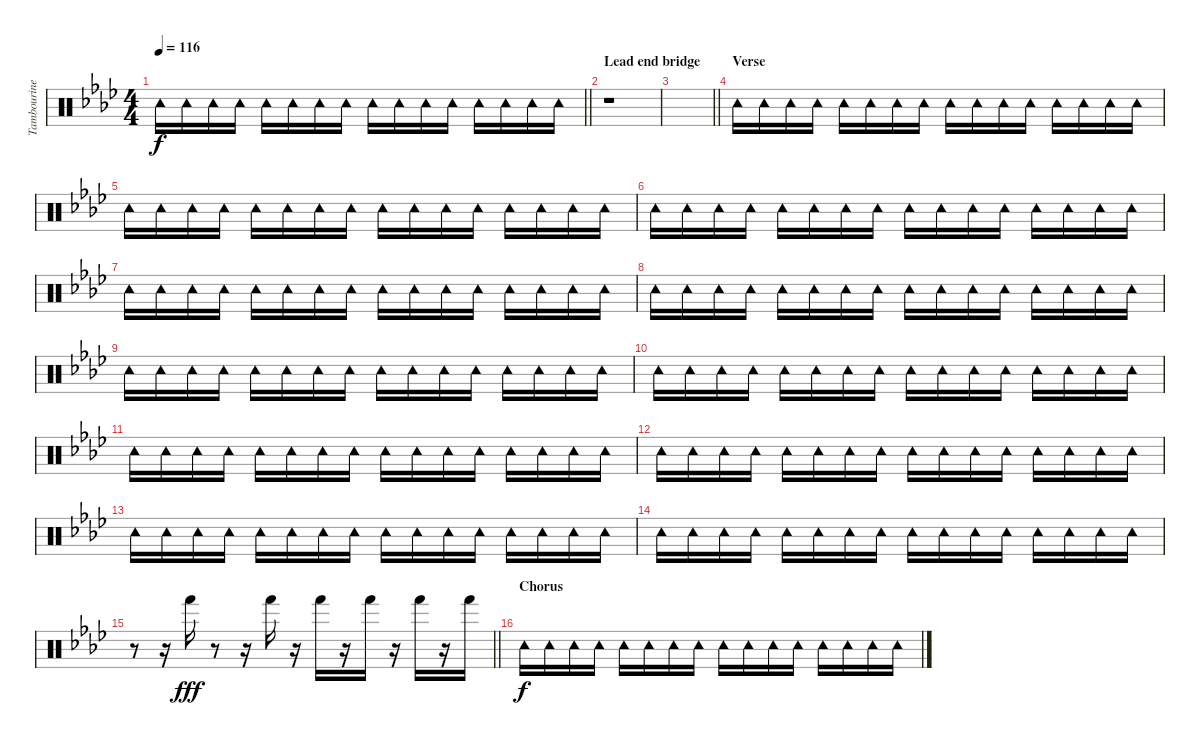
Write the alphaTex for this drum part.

\track ("Tambourine" "Tambourine") {instrument percussion}
\staff {score}
\articulation defaults
\ts (4 4)
\tempo 116
\clef neutral
\barLineRight lightlight
\ks fminor "Tambourine (hit)".16{dy f} "Tambourine (hit)".16 "Tambourine (hit)".16 "Tambourine (hit)".16 "Tambourine (hit)".16 "Tambourine (hit)".16 "Tambourine (hit)".16 "Tambourine (hit)".16 "Tambourine (hit)".16 "Tambourine (hit)".16 "Tambourine (hit)".16 "Tambourine (hit)".16 "Tambourine (hit)".16 "Tambourine (hit)".16 "Tambourine (hit)".16 "Tambourine (hit)".16
|
\section ("" "Lead end bridge")
r.1 |
\barLineRight lightlight
|
\section ("" "Verse")
"Tambourine (hit)".16 "Tambourine (hit)".16 "Tambourine (hit)".16 "Tambourine (hit)".16 "Tambourine (hit)".16 "Tambourine (hit)".16 "Tambourine (hit)".16 "Tambourine (hit)".16 "Tambourine (hit)".16 "Tambourine (hit)".16 "Tambourine (hit)".16 "Tambourine (hit)".16 "Tambourine (hit)".16 "Tambourine (hit)".16 "Tambourine (hit)".16 "Tambourine (hit)".16 |
"Tambourine (hit)".16 "Tambourine (hit)".16 "Tambourine (hit)".16 "Tambourine (hit)".16 "Tambourine (hit)".16 "Tambourine (hit)".16 "Tambourine (hit)".16 "Tambourine (hit)".16 "Tambourine (hit)".16 "Tambourine (hit)".16 "Tambourine (hit)".16 "Tambourine (hit)".16 "Tambourine (hit)".16 "Tambourine (hit)".16 "Tambourine (hit)".16 "Tambourine (hit)".16 |
"Tambourine (hit)".16 "Tambourine (hit)".16 "Tambourine (hit)".16 "Tambourine (hit)".16 "Tambourine (hit)".16 "Tambourine (hit)".16 "Tambourine (hit)".16 "Tambourine (hit)".16 "Tambourine (hit)".16 "Tambourine (hit)".16 "Tambourine (hit)".16 "Tambourine (hit)".16 "Tambourine (hit)".16 "Tambourine (hit)".16 "Tambourine (hit)".16 "Tambourine (hit)".16 |
"Tambourine (hit)".16 "Tambourine (hit)".16 "Tambourine (hit)".16 "Tambourine (hit)".16 "Tambourine (hit)".16 "Tambourine (hit)".16 "Tambourine (hit)".16 "Tambourine (hit)".16 "Tambourine (hit)".16 "Tambourine (hit)".16 "Tambourine (hit)".16 "Tambourine (hit)".16 "Tambourine (hit)".16 "Tambourine (hit)".16 "Tambourine (hit)".16 "Tambourine (hit)".16 |
"Tambourine (hit)".16 "Tambourine (hit)".16 "Tambourine (hit)".16 "Tambourine (hit)".16 "Tambourine (hit)".16 "Tambourine (hit)".16 "Tambourine (hit)".16 "Tambourine (hit)".16 "Tambourine (hit)".16 "Tambourine (hit)".16 "Tambourine (hit)".16 "Tambourine (hit)".16 "Tambourine (hit)".16 "Tambourine (hit)".16 "Tambourine (hit)".16 "Tambourine (hit)".16 |
"Tambourine (hit)".16 "Tambourine (hit)".16 "Tambourine (hit)".16 "Tambourine (hit)".16 "Tambourine (hit)".16 "Tambourine (hit)".16 "Tambourine (hit)".16 "Tambourine (hit)".16 "Tambourine (hit)".16 "Tambourine (hit)".16 "Tambourine (hit)".16 "Tambourine (hit)".16 "Tambourine (hit)".16 "Tambourine (hit)".16 "Tambourine (hit)".16 "Tambourine (hit)".16 |
"Tambourine (hit)".16 "Tambourine (hit)".16 "Tambourine (hit)".16 "Tambourine (hit)".16 "Tambourine (hit)".16 "Tambourine (hit)".16 "Tambourine (hit)".16 "Tambourine (hit)".16 "Tambourine (hit)".16 "Tambourine (hit)".16 "Tambourine (hit)".16 "Tambourine (hit)".16 "Tambourine (hit)".16 "Tambourine (hit)".16 "Tambourine (hit)".16 "Tambourine (hit)".16 |
"Tambourine (hit)".16 "Tambourine (hit)".16 "Tambourine (hit)".16 "Tambourine (hit)".16 "Tambourine (hit)".16 "Tambourine (hit)".16 "Tambourine (hit)".16 "Tambourine (hit)".16 "Tambourine (hit)".16 "Tambourine (hit)".16 "Tambourine (hit)".16 "Tambourine (hit)".16 "Tambourine (hit)".16 "Tambourine (hit)".16 "Tambourine (hit)".16 "Tambourine (hit)".16 |
"Tambourine (hit)".16 "Tambourine (hit)".16 "Tambourine (hit)".16 "Tambourine (hit)".16 "Tambourine (hit)".16 "Tambourine (hit)".16 "Tambourine (hit)".16 "Tambourine (hit)".16 "Tambourine (hit)".16 "Tambourine (hit)".16 "Tambourine (hit)".16 "Tambourine (hit)".16 "Tambourine (hit)".16 "Tambourine (hit)".16 "Tambourine (hit)".16 "Tambourine (hit)".16 |
"Tambourine (hit)".16 "Tambourine (hit)".16 "Tambourine (hit)".16 "Tambourine (hit)".16 "Tambourine (hit)".16 "Tambourine (hit)".16 "Tambourine (hit)".16 "Tambourine (hit)".16 "Tambourine (hit)".16 "Tambourine (hit)".16 "Tambourine (hit)".16 "Tambourine (hit)".16 "Tambourine (hit)".16 "Tambourine (hit)".16 "Tambourine (hit)".16 "Tambourine (hit)".16 |
"Tambourine (hit)".16 "Tambourine (hit)".16 "Tambourine (hit)".16 "Tambourine (hit)".16 "Tambourine (hit)".16 "Tambourine (hit)".16 "Tambourine (hit)".16 "Tambourine (hit)".16 "Tambourine (hit)".16 "Tambourine (hit)".16 "Tambourine (hit)".16 "Tambourine (hit)".16 "Tambourine (hit)".16 "Tambourine (hit)".16 "Tambourine (hit)".16 "Tambourine (hit)".16 |
\barLineRight lightlight
r.8 r.16 "Hand (hit)".16{dy fff} r.8 r.16 "Hand (hit)".16 r.16 "Hand (hit)".16 r.16 "Hand (hit)".16 r.16 "Hand (hit)".16 r.16 "Hand (hit)".16 |
\section ("" "Chorus")
"Tambourine (hit)".16{dy f} "Tambourine (hit)".16 "Tambourine (hit)".16 "Tambourine (hit)".16 "Tambourine (hit)".16 "Tambourine (hit)".16 "Tambourine (hit)".16 "Tambourine (hit)".16 "Tambourine (hit)".16 "Tambourine (hit)".16 "Tambourine (hit)".16 "Tambourine (hit)".16 "Tambourine (hit)".16 "Tambourine (hit)".16 "Tambourine (hit)".16 "Tambourine (hit)".16
